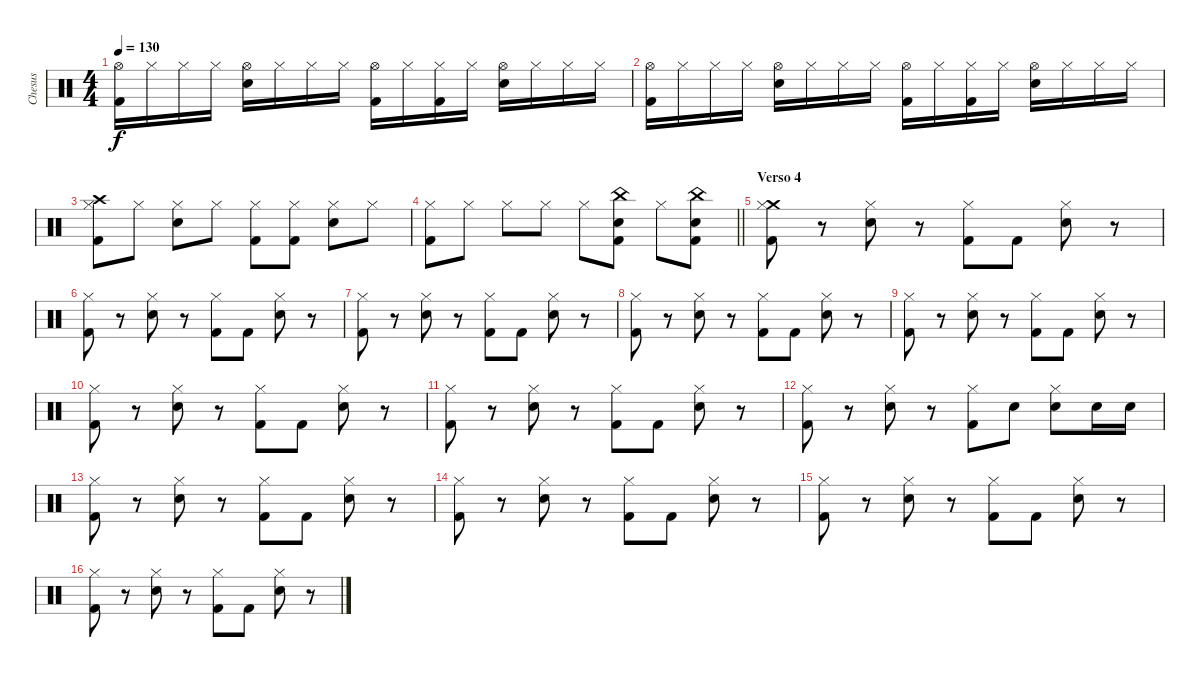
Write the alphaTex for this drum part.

\track ("Chesus" "Chesus") {instrument percussion}
\staff {score}
\articulation defaults
\ts (4 4)
\tempo 130
\clef neutral
\ks c
("Hi-Hat (open)" "Kick (hit) 2").16{dy f} "Hi-Hat (closed)".16 "Hi-Hat (closed)".16 "Hi-Hat (closed)".16 ("Hi-Hat (open)" "Snare (hit) 2").16 "Hi-Hat (closed)".16 "Hi-Hat (closed)".16 "Hi-Hat (closed)".16 ("Hi-Hat (open)" "Kick (hit) 2").16 "Hi-Hat (closed)".16 ("Hi-Hat (closed)" "Kick (hit) 2").16 "Hi-Hat (closed)".16 ("Hi-Hat (open)" "Snare (hit) 2").16 "Hi-Hat (closed)".16 "Hi-Hat (closed)".16 "Hi-Hat (closed)".16 |
("Hi-Hat (open)" "Kick (hit) 2").16 "Hi-Hat (closed)".16 "Hi-Hat (closed)".16 "Hi-Hat (closed)".16 ("Hi-Hat (open)" "Snare (hit) 2").16 "Hi-Hat (closed)".16 "Hi-Hat (closed)".16 "Hi-Hat (closed)".16 ("Hi-Hat (open)" "Kick (hit) 2").16 "Hi-Hat (closed)".16 ("Hi-Hat (closed)" "Kick (hit) 2").16 "Hi-Hat (closed)".16 ("Hi-Hat (open)" "Snare (hit) 2").16 "Hi-Hat (closed)".16 "Hi-Hat (closed)".16 "Hi-Hat (closed)".16 |
("Crash high (hit)" "Hi-Hat (closed)" "Kick (hit) 2").8 "Hi-Hat (closed)".8 ("Hi-Hat (closed)" "Snare (hit) 2").8 "Hi-Hat (closed)".8 ("Hi-Hat (closed)" "Kick (hit) 2").8 ("Hi-Hat (closed)" "Kick (hit) 2").8 ("Hi-Hat (closed)" "Snare (hit) 2").8 "Hi-Hat (closed)".8 |
\barLineRight lightlight
("Hi-Hat (closed)" "Kick (hit) 2").8 "Hi-Hat (closed)".8 "Hi-Hat (closed)".8 "Hi-Hat (closed)".8 "Hi-Hat (closed)".8 ("China (hit)" "Snare (hit) 2" "Kick (hit) 2").8 "Hi-Hat (closed)".8 ("China (hit)" "Snare (hit) 2" "Kick (hit) 2").8 |
\section ("" "Verso 4")
("Crash medium (hit)" "Hi-Hat (closed)" "Kick (hit) 2").8 r.8 ("Hi-Hat (closed)" "Snare (hit) 2").8 r.8 ("Hi-Hat (closed)" "Kick (hit) 2").8 "Kick (hit) 2".8 ("Hi-Hat (closed)" "Snare (hit) 2").8 r.8 |
("Hi-Hat (closed)" "Kick (hit) 2").8 r.8 ("Hi-Hat (closed)" "Snare (hit) 2").8 r.8 ("Hi-Hat (closed)" "Kick (hit) 2").8 "Kick (hit) 2".8 ("Hi-Hat (closed)" "Snare (hit) 2").8 r.8 |
("Hi-Hat (closed)" "Kick (hit) 2").8 r.8 ("Hi-Hat (closed)" "Snare (hit) 2").8 r.8 ("Hi-Hat (closed)" "Kick (hit) 2").8 "Kick (hit) 2".8 ("Hi-Hat (closed)" "Snare (hit) 2").8 r.8 |
("Hi-Hat (closed)" "Kick (hit) 2").8 r.8 ("Hi-Hat (closed)" "Snare (hit) 2").8 r.8 ("Hi-Hat (closed)" "Kick (hit) 2").8 "Kick (hit) 2".8 ("Hi-Hat (closed)" "Snare (hit) 2").8 r.8 |
("Hi-Hat (closed)" "Kick (hit) 2").8 r.8 ("Hi-Hat (closed)" "Snare (hit) 2").8 r.8 ("Hi-Hat (closed)" "Kick (hit) 2").8 "Kick (hit) 2".8 ("Hi-Hat (closed)" "Snare (hit) 2").8 r.8 |
("Hi-Hat (closed)" "Kick (hit) 2").8 r.8 ("Hi-Hat (closed)" "Snare (hit) 2").8 r.8 ("Hi-Hat (closed)" "Kick (hit) 2").8 "Kick (hit) 2".8 ("Hi-Hat (closed)" "Snare (hit) 2").8 r.8 |
("Hi-Hat (closed)" "Kick (hit) 2").8 r.8 ("Hi-Hat (closed)" "Snare (hit) 2").8 r.8 ("Hi-Hat (closed)" "Kick (hit) 2").8 "Kick (hit) 2".8 ("Hi-Hat (closed)" "Snare (hit) 2").8 r.8 |
("Hi-Hat (closed)" "Kick (hit) 2").8 r.8 ("Hi-Hat (closed)" "Snare (hit) 2").8 r.8 ("Hi-Hat (closed)" "Kick (hit) 2").8 "Snare (hit) 2".8 ("Hi-Hat (closed)" "Snare (hit) 2").8 "Snare (hit) 2".16 "Snare (hit) 2".16 |
("Hi-Hat (closed)" "Kick (hit) 2").8 r.8 ("Hi-Hat (closed)" "Snare (hit) 2").8 r.8 ("Hi-Hat (closed)" "Kick (hit) 2").8 "Kick (hit) 2".8 ("Hi-Hat (closed)" "Snare (hit) 2").8 r.8 |
("Hi-Hat (closed)" "Kick (hit) 2").8 r.8 ("Hi-Hat (closed)" "Snare (hit) 2").8 r.8 ("Hi-Hat (closed)" "Kick (hit) 2").8 "Kick (hit) 2".8 ("Hi-Hat (closed)" "Snare (hit) 2").8 r.8 |
("Hi-Hat (closed)" "Kick (hit) 2").8 r.8 ("Hi-Hat (closed)" "Snare (hit) 2").8 r.8 ("Hi-Hat (closed)" "Kick (hit) 2").8 "Kick (hit) 2".8 ("Hi-Hat (closed)" "Snare (hit) 2").8 r.8 |
("Hi-Hat (closed)" "Kick (hit) 2").8 r.8 ("Hi-Hat (closed)" "Snare (hit) 2").8 r.8 ("Hi-Hat (closed)" "Kick (hit) 2").8 "Kick (hit) 2".8 ("Hi-Hat (closed)" "Snare (hit) 2").8 r.8
